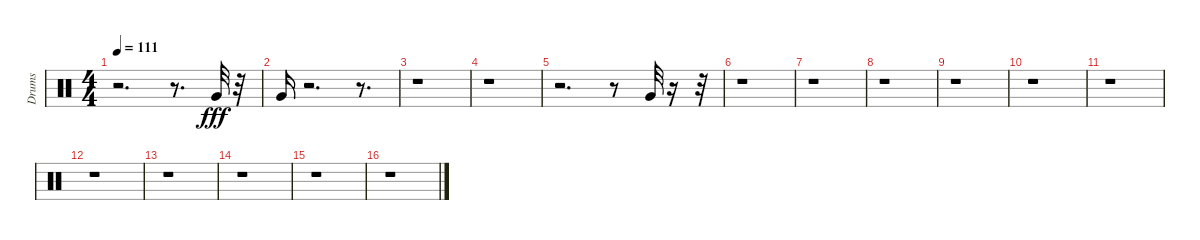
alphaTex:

\track ("Drums" "Drums") {instrument percussion}
\staff {score}
\articulation defaults
\ts (4 4)
\tempo 111
\clef neutral
\ks c
r.2{d dy fff} r.8{d} "Very Low Tom (hit)".32 r.32 |
"Very Low Tom (hit)".16 r.2{d} r.8{d} |
r.1 |
r.1 |
r.2{d} r.8 "Very Low Tom (hit)".32 r.16 r.32 |
r.1 |
r.1 |
r.1 |
r.1 |
r.1 |
r.1 |
r.1 |
r.1 |
r.1 |
r.1 |
r.1
